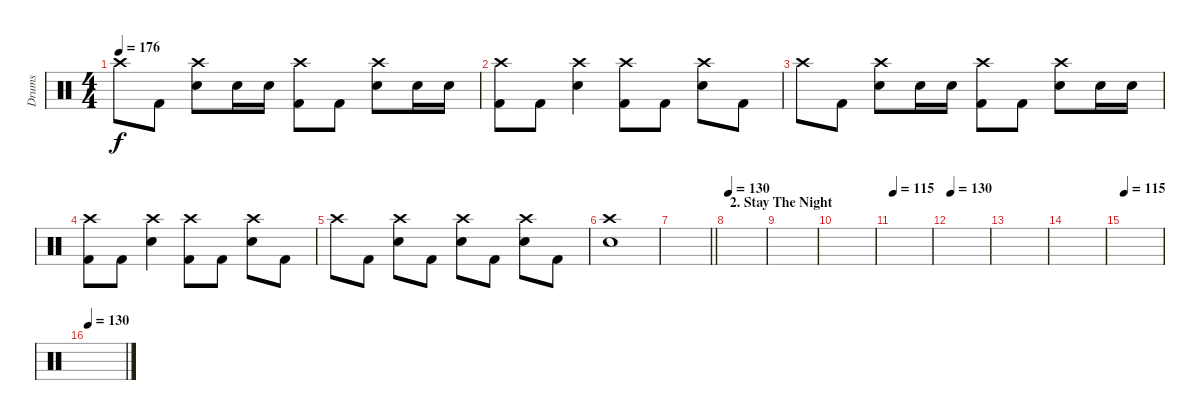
\track ("Drums" "Drums") {instrument percussion}
\staff {score}
\articulation defaults
\ts (4 4)
\tempo 176
\clef neutral
\ks c "Crash high (hit)".8{dy f} "Kick (hit) 2".8
("Crash high (hit)" "Electric Snare (hit)").8 "Electric Snare (hit)".16 "Electric Snare (hit)".16 ("Crash high (hit)" "Kick (hit) 2").8 "Kick (hit) 2".8 ("Crash high (hit)" "Electric Snare (hit)").8 "Electric Snare (hit)".16 "Electric Snare (hit)".16 |
("Crash high (hit)" "Kick (hit) 2").8 "Kick (hit) 2".8 ("Crash high (hit)" "Electric Snare (hit)").4 ("Crash high (hit)" "Kick (hit) 2").8 "Kick (hit) 2".8 ("Crash high (hit)" "Electric Snare (hit)").8 "Kick (hit) 2".8 |
"Crash high (hit)".8 "Kick (hit) 2".8 ("Crash high (hit)" "Electric Snare (hit)").8 "Electric Snare (hit)".16 "Electric Snare (hit)".16 ("Crash high (hit)" "Kick (hit) 2").8 "Kick (hit) 2".8 ("Crash high (hit)" "Electric Snare (hit)").8 "Electric Snare (hit)".16 "Electric Snare (hit)".16 |
("Crash high (hit)" "Kick (hit) 2").8 "Kick (hit) 2".8 ("Crash high (hit)" "Electric Snare (hit)").4 ("Crash high (hit)" "Kick (hit) 2").8 "Kick (hit) 2".8 ("Crash high (hit)" "Electric Snare (hit)").8 "Kick (hit) 2".8 |
"Crash high (hit)".8 "Kick (hit) 2".8 ("Crash high (hit)" "Electric Snare (hit)").8 "Kick (hit) 2".8 ("Crash high (hit)" "Electric Snare (hit)").8 "Kick (hit) 2".8 ("Crash high (hit)" "Electric Snare (hit)").8 "Kick (hit) 2".8 |
("Crash high (hit)" "Electric Snare (hit)").1 |
\barLineRight lightlight
|
\section ("" "2. Stay The Night")
\tempo 130
|
|
|
\tempo 115
|
\tempo 130
|
|
|
\tempo 115
|
\tempo 130
